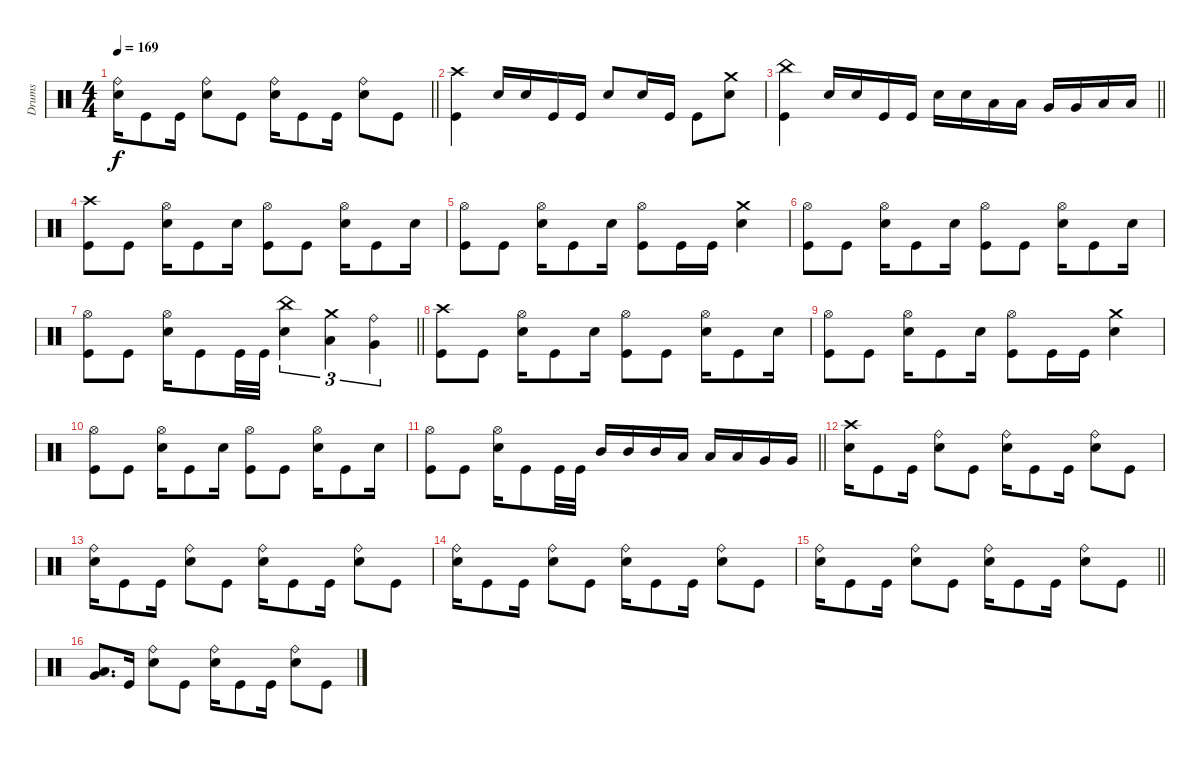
\track ("Drums" "Drums") {instrument percussion}
\staff
\articulation defaults
\ts (4 4)
\tempo 169
\clef neutral
\barLineRight lightlight
\ks c
("Ride (bell)" "Electric Snare (hit)").16{dy f} "Kick (hit)".8 "Kick (hit)".16 ("Ride (bell)" "Electric Snare (hit)").8 "Kick (hit)".8 ("Ride (bell)" "Electric Snare (hit)").16 "Kick (hit)".8 "Kick (hit)".16 ("Ride (bell)" "Electric Snare (hit)").8 "Kick (hit)".8 |
("Crash high (hit)" "Kick (hit)").4 "Electric Snare (hit)".16 "Electric Snare (hit)".16 "Kick (hit)".16 "Kick (hit)".16 "Electric Snare (hit)".8 "Electric Snare (hit)".16 "Kick (hit)".16 "Kick (hit)".8 ("Crash medium (hit)" "Electric Snare (hit)").8 |
\barLineRight lightlight
("China (hit)" "Kick (hit)").4 "Electric Snare (hit)".16 "Electric Snare (hit)".16 "Kick (hit)".16 "Kick (hit)".16 "Electric Snare (hit)".16 "Electric Snare (hit)".16 "Low Tom (hit)".16 "Low Tom (hit)".16 "Very Low Tom (hit)".16 "Very Low Tom (hit)".16 "Low Floor Tom (hit)".16 "Low Floor Tom (hit)".16 |
\section ("" "")
("Crash high (hit)" "Kick (hit)").8 "Kick (hit)".8 ("Hi-Hat (open)" "Electric Snare (hit)").16 "Kick (hit)".8 "Electric Snare (hit)".16 ("Hi-Hat (open)" "Kick (hit)").8 "Kick (hit)".8 ("Hi-Hat (open)" "Electric Snare (hit)").16 "Kick (hit)".8 "Electric Snare (hit)".16 |
("Hi-Hat (open)" "Kick (hit)").8 "Kick (hit)".8 ("Hi-Hat (open)" "Electric Snare (hit)").16 "Kick (hit)".8 "Electric Snare (hit)".16 ("Hi-Hat (open)" "Kick (hit)").8 "Kick (hit)".16 "Kick (hit)".16 ("Crash medium (hit)" "Electric Snare (hit)").4 |
("Hi-Hat (open)" "Kick (hit)").8 "Kick (hit)".8 ("Hi-Hat (open)" "Electric Snare (hit)").16 "Kick (hit)".8 "Electric Snare (hit)".16 ("Hi-Hat (open)" "Kick (hit)").8 "Kick (hit)".8 ("Hi-Hat (open)" "Electric Snare (hit)").16 "Kick (hit)".8 "Electric Snare (hit)".16 |
\barLineRight lightlight
("Hi-Hat (open)" "Kick (hit)").8 "Kick (hit)".8 ("Hi-Hat (open)" "Electric Snare (hit)").16 "Kick (hit)".8 "Kick (hit)".32 "Kick (hit)".32 ("China (hit)" "Electric Snare (hit)").4{tu (3 2)} ("Crash medium (hit)" "Low Tom (hit)").4{tu (3 2)} ("Ride (bell)" "Very Low Tom (hit)").4{tu (3 2)} |
("Crash high (hit)" "Kick (hit)").8 "Kick (hit)".8 ("Hi-Hat (open)" "Electric Snare (hit)").16 "Kick (hit)".8 "Electric Snare (hit)".16 ("Hi-Hat (open)" "Kick (hit)").8 "Kick (hit)".8 ("Hi-Hat (open)" "Electric Snare (hit)").16 "Kick (hit)".8 "Electric Snare (hit)".16 |
("Hi-Hat (open)" "Kick (hit)").8 "Kick (hit)".8 ("Hi-Hat (open)" "Electric Snare (hit)").16 "Kick (hit)".8 "Electric Snare (hit)".16 ("Hi-Hat (open)" "Kick (hit)").8 "Kick (hit)".16 "Kick (hit)".16 ("Crash medium (hit)" "Electric Snare (hit)").4 |
("Hi-Hat (open)" "Kick (hit)").8 "Kick (hit)".8 ("Hi-Hat (open)" "Electric Snare (hit)").16 "Kick (hit)".8 "Electric Snare (hit)".16 ("Hi-Hat (open)" "Kick (hit)").8 "Kick (hit)".8 ("Hi-Hat (open)" "Electric Snare (hit)").16 "Kick (hit)".8 "Electric Snare (hit)".16 |
\barLineRight lightlight
("Hi-Hat (open)" "Kick (hit)").8 "Kick (hit)".8 ("Hi-Hat (open)" "Electric Snare (hit)").16 "Kick (hit)".8 "Kick (hit)".32 "Kick (hit)".32 "Mid Tom (hit)".16 "Mid Tom (hit)".16 "Mid Tom (hit)".16 "Low Floor Tom (hit)".16 "Low Floor Tom (hit)".16 "Low Floor Tom (hit)".16 "Very Low Tom (hit)".16 "Very Low Tom (hit)".16 |
("Crash high (hit)" "Electric Snare (hit)").16 "Kick (hit)".8 "Kick (hit)".16 ("Ride (bell)" "Electric Snare (hit)").8 "Kick (hit)".8 ("Ride (bell)" "Electric Snare (hit)").16 "Kick (hit)".8 "Kick (hit)".16 ("Ride (bell)" "Electric Snare (hit)").8 "Kick (hit)".8 |
("Ride (bell)" "Electric Snare (hit)").16 "Kick (hit)".8 "Kick (hit)".16 ("Ride (bell)" "Electric Snare (hit)").8 "Kick (hit)".8 ("Ride (bell)" "Electric Snare (hit)").16 "Kick (hit)".8 "Kick (hit)".16 ("Ride (bell)" "Electric Snare (hit)").8 "Kick (hit)".8 |
("Ride (bell)" "Electric Snare (hit)").16 "Kick (hit)".8 "Kick (hit)".16 ("Ride (bell)" "Electric Snare (hit)").8 "Kick (hit)".8 ("Ride (bell)" "Electric Snare (hit)").16 "Kick (hit)".8 "Kick (hit)".16 ("Ride (bell)" "Electric Snare (hit)").8 "Kick (hit)".8 |
\barLineRight lightlight
("Ride (bell)" "Electric Snare (hit)").16 "Kick (hit)".8 "Kick (hit)".16 ("Ride (bell)" "Electric Snare (hit)").8 "Kick (hit)".8 ("Ride (bell)" "Electric Snare (hit)").16 "Kick (hit)".8 "Kick (hit)".16 ("Ride (bell)" "Electric Snare (hit)").8 "Kick (hit)".8 |
("Very Low Tom (hit)" "Low Floor Tom (hit)").8{d} "Kick (hit)".16 ("Ride (bell)" "Electric Snare (hit)").8 "Kick (hit)".8 ("Ride (bell)" "Electric Snare (hit)").16 "Kick (hit)".8 "Kick (hit)".16 ("Ride (bell)" "Electric Snare (hit)").8 "Kick (hit)".8
